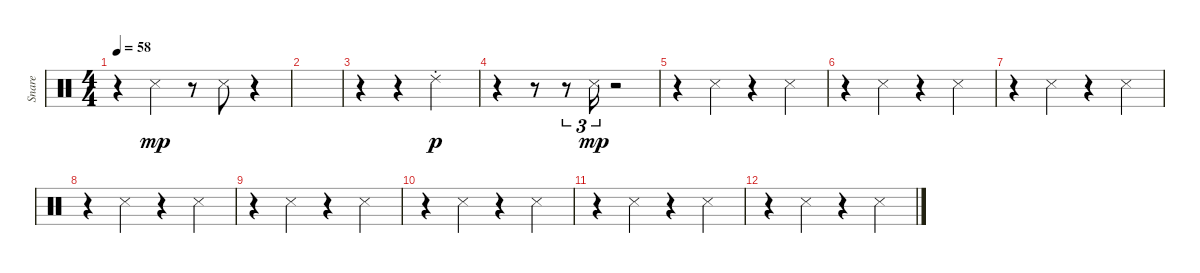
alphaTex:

\track ("Snare" "Snare") {instrument percussion}
\staff {score}
\articulation defaults
\ts (4 4)
\tempo 58
\clef neutral
\ks c
r.4{dy mp} "Snare (side stick) 3".4 r.8 "Snare (side stick) 3".8 r.4 |
|
r.4 r.4 "Ride (choke) 2".2{dy p} |
r.4 r.8 r.8{tu (3 2)} "Snare (side stick) 3".16{tu (3 2) dy mp} r.2 |
r.4 "Snare (side stick) 3".4 r.4 "Snare (side stick) 3".4 |
r.4 "Snare (side stick) 3".4 r.4 "Snare (side stick) 3".4 |
r.4 "Snare (side stick) 3".4 r.4 "Snare (side stick) 3".4 |
r.4 "Snare (side stick) 3".4 r.4 "Snare (side stick) 3".4 |
r.4 "Snare (side stick) 3".4 r.4 "Snare (side stick) 3".4 |
r.4 "Snare (side stick) 3".4 r.4 "Snare (side stick) 3".4 |
r.4 "Snare (side stick) 3".4 r.4 "Snare (side stick) 3".4 |
r.4 "Snare (side stick) 3".4 r.4 "Snare (side stick) 3".4
